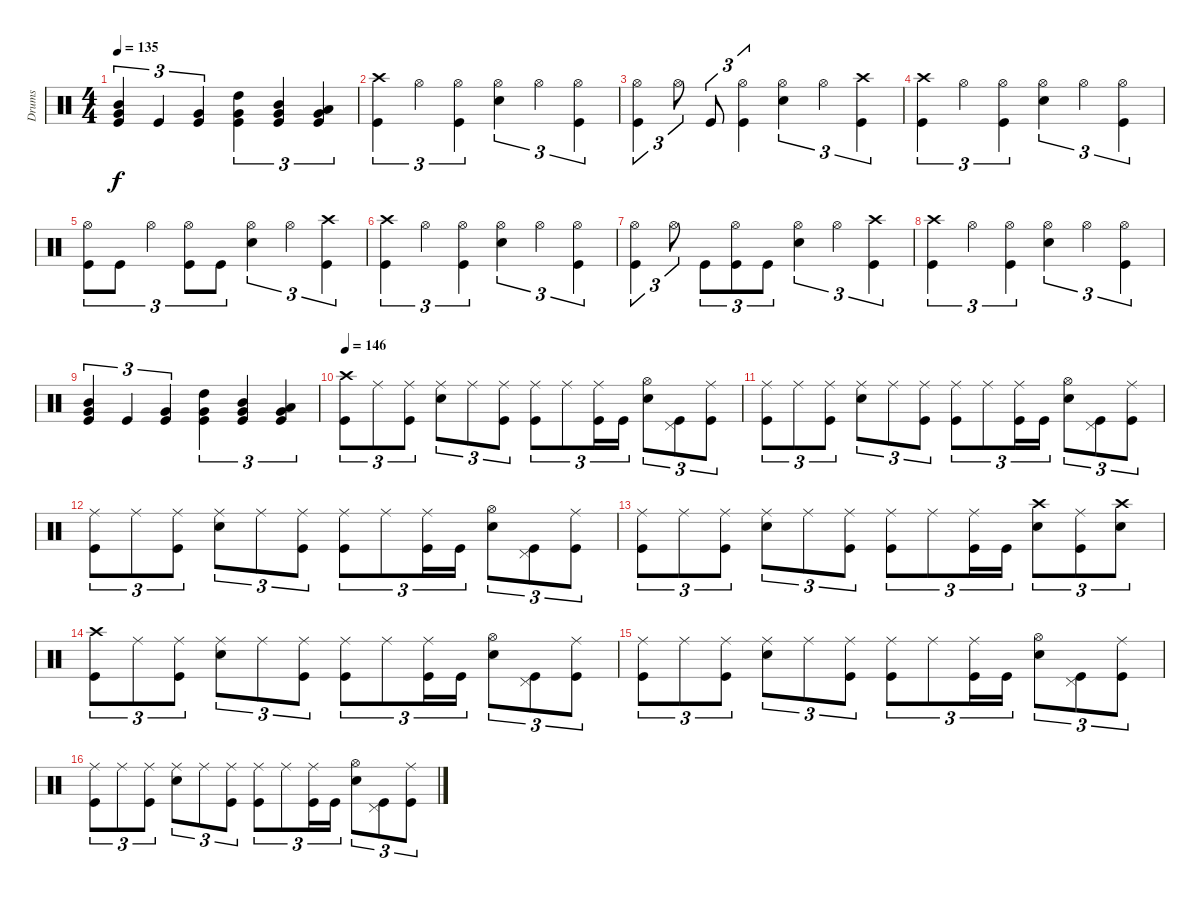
\track ("Drums" "Drums") {instrument percussion}
\staff {score}
\articulation defaults
\ts (4 4)
\tempo 135
\clef neutral
\ks c
("Mid Tom (hit)" "Very Low Tom (hit)" "Kick (hit)").4{tu (3 2) dy f} "Kick (hit)".4{tu (3 2)} ("Very Low Tom (hit)" "Kick (hit)").4{tu (3 2)} ("High Tom (hit)" "Very Low Tom (hit)" "Kick (hit)").4{tu (3 2)} ("Mid Tom (hit)" "Very Low Tom (hit)" "Kick (hit)").4{tu (3 2)} ("Low Tom (hit)" "Very Low Tom (hit)" "Kick (hit)").4{tu (3 2)} |
("Crash high (hit)" "Kick (hit)").4{tu (3 2)} "Hi-Hat (open)".4{tu (3 2)} ("Hi-Hat (open)" "Kick (hit)").4{tu (3 2)} ("Hi-Hat (open)" "Electric Snare (hit)").4{tu (3 2)} "Hi-Hat (open)".4{tu (3 2)} ("Hi-Hat (open)" "Kick (hit)").4{tu (3 2)} |
("Hi-Hat (open)" "Kick (hit)").4{tu (3 2)} "Hi-Hat (open)".8{tu (3 2)} "Kick (hit)".8{tu (3 2)} ("Hi-Hat (open)" "Kick (hit)").4{tu (3 2)} ("Hi-Hat (open)" "Electric Snare (hit)").4{tu (3 2)} "Hi-Hat (open)".4{tu (3 2)} ("Crash high (hit)" "Kick (hit)").4{tu (3 2)} |
("Crash high (hit)" "Kick (hit)").4{tu (3 2)} "Hi-Hat (open)".4{tu (3 2)} ("Hi-Hat (open)" "Kick (hit)").4{tu (3 2)} ("Hi-Hat (open)" "Electric Snare (hit)").4{tu (3 2)} "Hi-Hat (open)".4{tu (3 2)} ("Hi-Hat (open)" "Kick (hit)").4{tu (3 2)} |
("Hi-Hat (open)" "Kick (hit)").8{tu (3 2)} "Kick (hit)".8{tu (3 2)} "Hi-Hat (open)".4{tu (3 2)} ("Hi-Hat (open)" "Kick (hit)").8{tu (3 2)} "Kick (hit)".8{tu (3 2)} ("Hi-Hat (open)" "Electric Snare (hit)").4{tu (3 2)} "Hi-Hat (open)".4{tu (3 2)} ("Crash high (hit)" "Kick (hit)").4{tu (3 2)} |
("Crash high (hit)" "Kick (hit)").4{tu (3 2)} "Hi-Hat (open)".4{tu (3 2)} ("Hi-Hat (open)" "Kick (hit)").4{tu (3 2)} ("Hi-Hat (open)" "Electric Snare (hit)").4{tu (3 2)} "Hi-Hat (open)".4{tu (3 2)} ("Hi-Hat (open)" "Kick (hit)").4{tu (3 2)} |
("Hi-Hat (open)" "Kick (hit)").4{tu (3 2)} "Hi-Hat (open)".8{tu (3 2)} "Kick (hit)".8{tu (3 2)} ("Hi-Hat (open)" "Kick (hit)").8{tu (3 2)} "Kick (hit)".8{tu (3 2)} ("Hi-Hat (open)" "Electric Snare (hit)").4{tu (3 2)} "Hi-Hat (open)".4{tu (3 2)} ("Crash high (hit)" "Kick (hit)").4{tu (3 2)} |
("Crash high (hit)" "Kick (hit)").4{tu (3 2)} "Hi-Hat (open)".4{tu (3 2)} ("Hi-Hat (open)" "Kick (hit)").4{tu (3 2)} ("Hi-Hat (open)" "Electric Snare (hit)").4{tu (3 2)} "Hi-Hat (open)".4{tu (3 2)} ("Hi-Hat (open)" "Kick (hit)").4{tu (3 2)} |
("Mid Tom (hit)" "Very Low Tom (hit)" "Kick (hit)").4{tu (3 2)} "Kick (hit)".4{tu (3 2)} ("Very Low Tom (hit)" "Kick (hit)").4{tu (3 2)} ("High Tom (hit)" "Very Low Tom (hit)" "Kick (hit)").4{tu (3 2)} ("Mid Tom (hit)" "Very Low Tom (hit)" "Kick (hit)").4{tu (3 2)} ("Low Tom (hit)" "Very Low Tom (hit)" "Kick (hit)").4{tu (3 2)} |
\tempo 146
("Crash high (hit)" "Kick (hit)").8{tu (3 2)} "Ride (middle)".8{tu (3 2)} ("Ride (middle)" "Kick (hit)").8{tu (3 2)} ("Ride (middle)" "Electric Snare (hit)").8{tu (3 2)} "Ride (middle)".8{tu (3 2)} ("Ride (middle)" "Kick (hit)").8{tu (3 2)} ("Ride (middle)" "Kick (hit)").8{tu (3 2)} "Ride (middle)".8{tu (3 2)} ("Ride (middle)" "Kick (hit)").16{tu (3 2)} "Kick (hit)".16{tu (3 2)} ("Hi-Hat (open)" "Electric Snare (hit)").8{tu (3 2)} ("Pedal Hi-Hat (hit)" "Kick (hit)").8{tu (3 2)} ("Ride (middle)" "Kick (hit)").8{tu (3 2)} |
("Ride (middle)" "Kick (hit)").8{tu (3 2)} "Ride (middle)".8{tu (3 2)} ("Ride (middle)" "Kick (hit)").8{tu (3 2)} ("Ride (middle)" "Electric Snare (hit)").8{tu (3 2)} "Ride (middle)".8{tu (3 2)} ("Ride (middle)" "Kick (hit)").8{tu (3 2)} ("Ride (middle)" "Kick (hit)").8{tu (3 2)} "Ride (middle)".8{tu (3 2)} ("Ride (middle)" "Kick (hit)").16{tu (3 2)} "Kick (hit)".16{tu (3 2)} ("Hi-Hat (open)" "Electric Snare (hit)").8{tu (3 2)} ("Pedal Hi-Hat (hit)" "Kick (hit)").8{tu (3 2)} ("Ride (middle)" "Kick (hit)").8{tu (3 2)} |
("Ride (middle)" "Kick (hit)").8{tu (3 2)} "Ride (middle)".8{tu (3 2)} ("Ride (middle)" "Kick (hit)").8{tu (3 2)} ("Ride (middle)" "Electric Snare (hit)").8{tu (3 2)} "Ride (middle)".8{tu (3 2)} ("Ride (middle)" "Kick (hit)").8{tu (3 2)} ("Ride (middle)" "Kick (hit)").8{tu (3 2)} "Ride (middle)".8{tu (3 2)} ("Ride (middle)" "Kick (hit)").16{tu (3 2)} "Kick (hit)".16{tu (3 2)} ("Hi-Hat (open)" "Electric Snare (hit)").8{tu (3 2)} ("Pedal Hi-Hat (hit)" "Kick (hit)").8{tu (3 2)} ("Ride (middle)" "Kick (hit)").8{tu (3 2)} |
("Ride (middle)" "Kick (hit)").8{tu (3 2)} "Ride (middle)".8{tu (3 2)} ("Ride (middle)" "Kick (hit)").8{tu (3 2)} ("Ride (middle)" "Electric Snare (hit)").8{tu (3 2)} "Ride (middle)".8{tu (3 2)} ("Ride (middle)" "Kick (hit)").8{tu (3 2)} ("Ride (middle)" "Kick (hit)").8{tu (3 2)} "Ride (middle)".8{tu (3 2)} ("Ride (middle)" "Kick (hit)").16{tu (3 2)} "Kick (hit)".16{tu (3 2)} ("Crash high (hit)" "Electric Snare (hit)").8{tu (3 2)} ("Ride (middle)" "Kick (hit)").8{tu (3 2)} ("Crash high (hit)" "Electric Snare (hit)").8{tu (3 2)} |
("Crash high (hit)" "Kick (hit)").8{tu (3 2)} "Ride (middle)".8{tu (3 2)} ("Ride (middle)" "Kick (hit)").8{tu (3 2)} ("Ride (middle)" "Electric Snare (hit)").8{tu (3 2)} "Ride (middle)".8{tu (3 2)} ("Ride (middle)" "Kick (hit)").8{tu (3 2)} ("Ride (middle)" "Kick (hit)").8{tu (3 2)} "Ride (middle)".8{tu (3 2)} ("Ride (middle)" "Kick (hit)").16{tu (3 2)} "Kick (hit)".16{tu (3 2)} ("Hi-Hat (open)" "Electric Snare (hit)").8{tu (3 2)} ("Pedal Hi-Hat (hit)" "Kick (hit)").8{tu (3 2)} ("Ride (middle)" "Kick (hit)").8{tu (3 2)} |
("Ride (middle)" "Kick (hit)").8{tu (3 2)} "Ride (middle)".8{tu (3 2)} ("Ride (middle)" "Kick (hit)").8{tu (3 2)} ("Ride (middle)" "Electric Snare (hit)").8{tu (3 2)} "Ride (middle)".8{tu (3 2)} ("Ride (middle)" "Kick (hit)").8{tu (3 2)} ("Ride (middle)" "Kick (hit)").8{tu (3 2)} "Ride (middle)".8{tu (3 2)} ("Ride (middle)" "Kick (hit)").16{tu (3 2)} "Kick (hit)".16{tu (3 2)} ("Hi-Hat (open)" "Electric Snare (hit)").8{tu (3 2)} ("Pedal Hi-Hat (hit)" "Kick (hit)").8{tu (3 2)} ("Ride (middle)" "Kick (hit)").8{tu (3 2)} |
("Ride (middle)" "Kick (hit)").8{tu (3 2)} "Ride (middle)".8{tu (3 2)} ("Ride (middle)" "Kick (hit)").8{tu (3 2)} ("Ride (middle)" "Electric Snare (hit)").8{tu (3 2)} "Ride (middle)".8{tu (3 2)} ("Ride (middle)" "Kick (hit)").8{tu (3 2)} ("Ride (middle)" "Kick (hit)").8{tu (3 2)} "Ride (middle)".8{tu (3 2)} ("Ride (middle)" "Kick (hit)").16{tu (3 2)} "Kick (hit)".16{tu (3 2)} ("Hi-Hat (open)" "Electric Snare (hit)").8{tu (3 2)} ("Pedal Hi-Hat (hit)" "Kick (hit)").8{tu (3 2)} ("Ride (middle)" "Kick (hit)").8{tu (3 2)}
